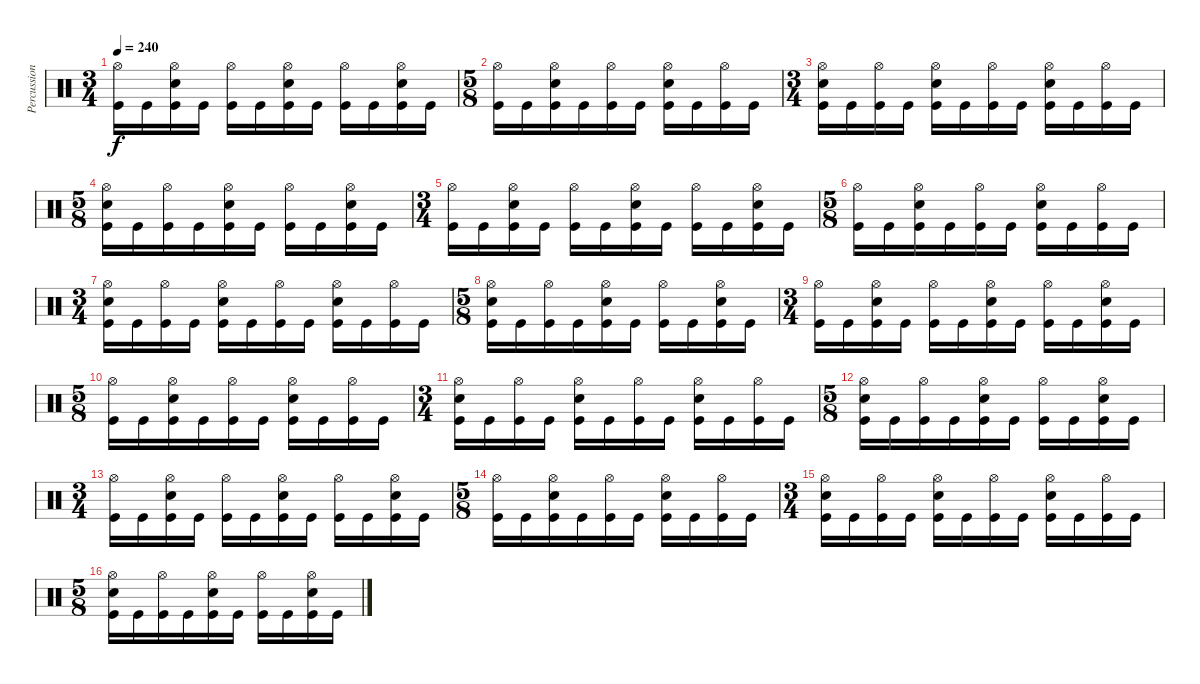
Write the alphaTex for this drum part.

\track ("Percussion" "Percussion") {instrument percussion}
\staff {score}
\articulation defaults
\ts (3 4)
\tempo 240
\clef neutral
\ks c
("Hi-Hat (open)" "Kick (hit)").16{dy f} "Kick (hit)".16 ("Hi-Hat (open)" "Snare (hit) 2" "Kick (hit)").16 "Kick (hit)".16 ("Hi-Hat (open)" "Kick (hit)").16 "Kick (hit)".16 ("Hi-Hat (open)" "Snare (hit) 2" "Kick (hit)").16 "Kick (hit)".16 ("Hi-Hat (open)" "Kick (hit)").16 "Kick (hit)".16 ("Hi-Hat (open)" "Snare (hit) 2" "Kick (hit)").16 "Kick (hit)".16 |
\ts (5 8)
("Hi-Hat (open)" "Kick (hit)").16 "Kick (hit)".16 ("Hi-Hat (open)" "Snare (hit) 2" "Kick (hit)").16 "Kick (hit)".16 ("Hi-Hat (open)" "Kick (hit)").16 "Kick (hit)".16 ("Hi-Hat (open)" "Snare (hit) 2" "Kick (hit)").16 "Kick (hit)".16 ("Hi-Hat (open)" "Kick (hit)").16 "Kick (hit)".16 |
\ts (3 4)
("Hi-Hat (open)" "Snare (hit) 2" "Kick (hit)").16 "Kick (hit)".16 ("Hi-Hat (open)" "Kick (hit)").16 "Kick (hit)".16 ("Hi-Hat (open)" "Snare (hit) 2" "Kick (hit)").16 "Kick (hit)".16 ("Hi-Hat (open)" "Kick (hit)").16 "Kick (hit)".16 ("Hi-Hat (open)" "Snare (hit) 2" "Kick (hit)").16 "Kick (hit)".16 ("Hi-Hat (open)" "Kick (hit)").16 "Kick (hit)".16 |
\ts (5 8)
("Hi-Hat (open)" "Snare (hit) 2" "Kick (hit)").16 "Kick (hit)".16 ("Hi-Hat (open)" "Kick (hit)").16 "Kick (hit)".16 ("Hi-Hat (open)" "Snare (hit) 2" "Kick (hit)").16 "Kick (hit)".16 ("Hi-Hat (open)" "Kick (hit)").16 "Kick (hit)".16 ("Hi-Hat (open)" "Snare (hit) 2" "Kick (hit)").16 "Kick (hit)".16 |
\ts (3 4)
("Hi-Hat (open)" "Kick (hit)").16 "Kick (hit)".16 ("Hi-Hat (open)" "Snare (hit) 2" "Kick (hit)").16 "Kick (hit)".16 ("Hi-Hat (open)" "Kick (hit)").16 "Kick (hit)".16 ("Hi-Hat (open)" "Snare (hit) 2" "Kick (hit)").16 "Kick (hit)".16 ("Hi-Hat (open)" "Kick (hit)").16 "Kick (hit)".16 ("Hi-Hat (open)" "Snare (hit) 2" "Kick (hit)").16 "Kick (hit)".16 |
\ts (5 8)
("Hi-Hat (open)" "Kick (hit)").16 "Kick (hit)".16 ("Hi-Hat (open)" "Snare (hit) 2" "Kick (hit)").16 "Kick (hit)".16 ("Hi-Hat (open)" "Kick (hit)").16 "Kick (hit)".16 ("Hi-Hat (open)" "Snare (hit) 2" "Kick (hit)").16 "Kick (hit)".16 ("Hi-Hat (open)" "Kick (hit)").16 "Kick (hit)".16 |
\ts (3 4)
("Hi-Hat (open)" "Snare (hit) 2" "Kick (hit)").16 "Kick (hit)".16 ("Hi-Hat (open)" "Kick (hit)").16 "Kick (hit)".16 ("Hi-Hat (open)" "Snare (hit) 2" "Kick (hit)").16 "Kick (hit)".16 ("Hi-Hat (open)" "Kick (hit)").16 "Kick (hit)".16 ("Hi-Hat (open)" "Snare (hit) 2" "Kick (hit)").16 "Kick (hit)".16 ("Hi-Hat (open)" "Kick (hit)").16 "Kick (hit)".16 |
\ts (5 8)
("Hi-Hat (open)" "Snare (hit) 2" "Kick (hit)").16 "Kick (hit)".16 ("Hi-Hat (open)" "Kick (hit)").16 "Kick (hit)".16 ("Hi-Hat (open)" "Snare (hit) 2" "Kick (hit)").16 "Kick (hit)".16 ("Hi-Hat (open)" "Kick (hit)").16 "Kick (hit)".16 ("Hi-Hat (open)" "Snare (hit) 2" "Kick (hit)").16 "Kick (hit)".16 |
\ts (3 4)
("Hi-Hat (open)" "Kick (hit)").16 "Kick (hit)".16 ("Hi-Hat (open)" "Snare (hit) 2" "Kick (hit)").16 "Kick (hit)".16 ("Hi-Hat (open)" "Kick (hit)").16 "Kick (hit)".16 ("Hi-Hat (open)" "Snare (hit) 2" "Kick (hit)").16 "Kick (hit)".16 ("Hi-Hat (open)" "Kick (hit)").16 "Kick (hit)".16 ("Hi-Hat (open)" "Snare (hit) 2" "Kick (hit)").16 "Kick (hit)".16 |
\ts (5 8)
("Hi-Hat (open)" "Kick (hit)").16 "Kick (hit)".16 ("Hi-Hat (open)" "Snare (hit) 2" "Kick (hit)").16 "Kick (hit)".16 ("Hi-Hat (open)" "Kick (hit)").16 "Kick (hit)".16 ("Hi-Hat (open)" "Snare (hit) 2" "Kick (hit)").16 "Kick (hit)".16 ("Hi-Hat (open)" "Kick (hit)").16 "Kick (hit)".16 |
\ts (3 4)
("Hi-Hat (open)" "Snare (hit) 2" "Kick (hit)").16 "Kick (hit)".16 ("Hi-Hat (open)" "Kick (hit)").16 "Kick (hit)".16 ("Hi-Hat (open)" "Snare (hit) 2" "Kick (hit)").16 "Kick (hit)".16 ("Hi-Hat (open)" "Kick (hit)").16 "Kick (hit)".16 ("Hi-Hat (open)" "Snare (hit) 2" "Kick (hit)").16 "Kick (hit)".16 ("Hi-Hat (open)" "Kick (hit)").16 "Kick (hit)".16 |
\ts (5 8)
("Hi-Hat (open)" "Snare (hit) 2" "Kick (hit)").16 "Kick (hit)".16 ("Hi-Hat (open)" "Kick (hit)").16 "Kick (hit)".16 ("Hi-Hat (open)" "Snare (hit) 2" "Kick (hit)").16 "Kick (hit)".16 ("Hi-Hat (open)" "Kick (hit)").16 "Kick (hit)".16 ("Hi-Hat (open)" "Snare (hit) 2" "Kick (hit)").16 "Kick (hit)".16 |
\ts (3 4)
("Hi-Hat (open)" "Kick (hit)").16 "Kick (hit)".16 ("Hi-Hat (open)" "Snare (hit) 2" "Kick (hit)").16 "Kick (hit)".16 ("Hi-Hat (open)" "Kick (hit)").16 "Kick (hit)".16 ("Hi-Hat (open)" "Snare (hit) 2" "Kick (hit)").16 "Kick (hit)".16 ("Hi-Hat (open)" "Kick (hit)").16 "Kick (hit)".16 ("Hi-Hat (open)" "Snare (hit) 2" "Kick (hit)").16 "Kick (hit)".16 |
\ts (5 8)
("Hi-Hat (open)" "Kick (hit)").16 "Kick (hit)".16 ("Hi-Hat (open)" "Snare (hit) 2" "Kick (hit)").16 "Kick (hit)".16 ("Hi-Hat (open)" "Kick (hit)").16 "Kick (hit)".16 ("Hi-Hat (open)" "Snare (hit) 2" "Kick (hit)").16 "Kick (hit)".16 ("Hi-Hat (open)" "Kick (hit)").16 "Kick (hit)".16 |
\ts (3 4)
("Hi-Hat (open)" "Snare (hit) 2" "Kick (hit)").16 "Kick (hit)".16 ("Hi-Hat (open)" "Kick (hit)").16 "Kick (hit)".16 ("Hi-Hat (open)" "Snare (hit) 2" "Kick (hit)").16 "Kick (hit)".16 ("Hi-Hat (open)" "Kick (hit)").16 "Kick (hit)".16 ("Hi-Hat (open)" "Snare (hit) 2" "Kick (hit)").16 "Kick (hit)".16 ("Hi-Hat (open)" "Kick (hit)").16 "Kick (hit)".16 |
\ts (5 8)
("Hi-Hat (open)" "Snare (hit) 2" "Kick (hit)").16 "Kick (hit)".16 ("Hi-Hat (open)" "Kick (hit)").16 "Kick (hit)".16 ("Hi-Hat (open)" "Snare (hit) 2" "Kick (hit)").16 "Kick (hit)".16 ("Hi-Hat (open)" "Kick (hit)").16 "Kick (hit)".16 ("Hi-Hat (open)" "Snare (hit) 2" "Kick (hit)").16 "Kick (hit)".16
